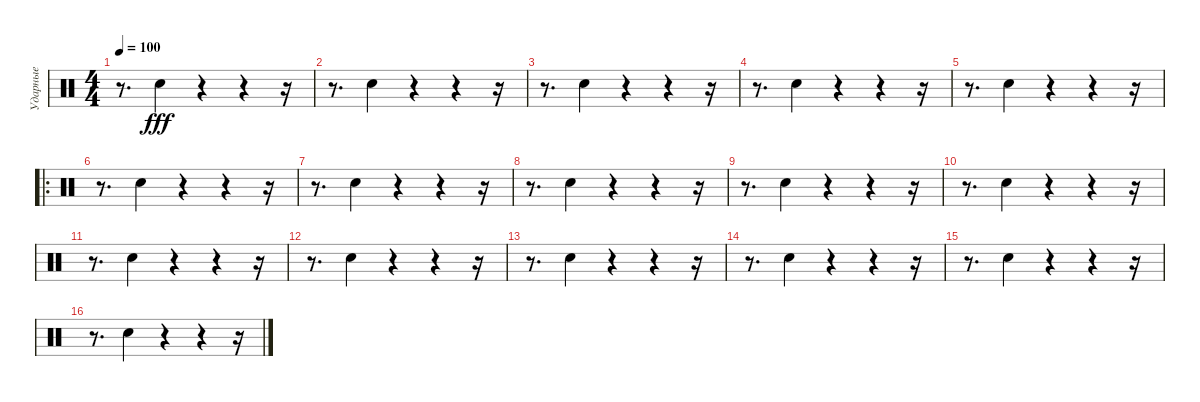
\track ("Ударные" "Ударные") {instrument percussion}
\staff {score}
\articulation defaults
\ts (4 4)
\tempo 100
\clef neutral
\ks c
r.8{d dy fff} "Hand Clap (hit)".4 r.4 r.4 r.16 |
r.8{d} "Hand Clap (hit)".4 r.4 r.4 r.16 |
r.8{d} "Hand Clap (hit)".4 r.4 r.4 r.16 |
r.8{d} "Hand Clap (hit)".4 r.4 r.4 r.16 |
r.8{d} "Hand Clap (hit)".4 r.4 r.4 r.16 |
\ro
r.8{d} "Hand Clap (hit)".4 r.4 r.4 r.16 |
r.8{d} "Hand Clap (hit)".4 r.4 r.4 r.16 |
r.8{d} "Hand Clap (hit)".4 r.4 r.4 r.16 |
r.8{d} "Hand Clap (hit)".4 r.4 r.4 r.16 |
r.8{d} "Hand Clap (hit)".4 r.4 r.4 r.16 |
r.8{d} "Hand Clap (hit)".4 r.4 r.4 r.16 |
r.8{d} "Hand Clap (hit)".4 r.4 r.4 r.16 |
r.8{d} "Hand Clap (hit)".4 r.4 r.4 r.16 |
r.8{d} "Hand Clap (hit)".4 r.4 r.4 r.16 |
r.8{d} "Hand Clap (hit)".4 r.4 r.4 r.16 |
r.8{d} "Hand Clap (hit)".4 r.4 r.4 r.16
